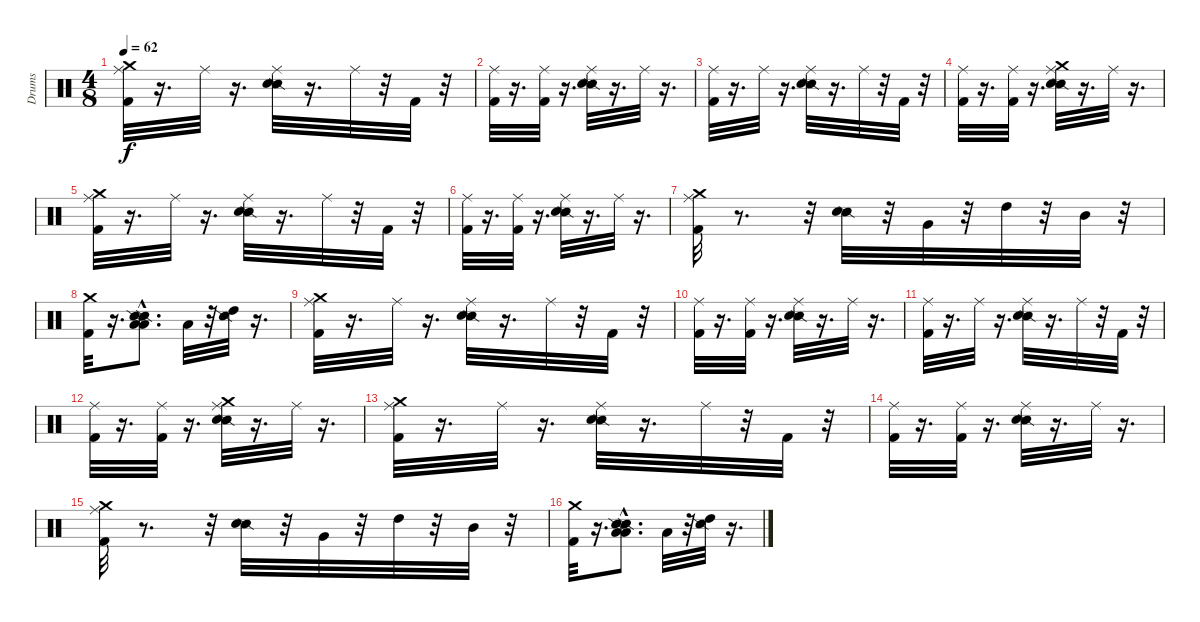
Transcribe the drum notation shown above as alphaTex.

\track ("Drums" "Drums") {instrument percussion}
\staff {score}
\articulation defaults
\ts (4 8)
\tempo 62
\clef neutral
\ks c
("Kick (hit) 2" "Ride (middle)" "Crash medium (hit)").32{dy f} r.16{d} "Ride (middle)".32 r.16{d} ("Snare (side stick) 2" "Snare (hit) 2" "Ride (middle)").32 r.16{d} "Ride (middle)".32 r.32 "Kick (hit) 2".32 r.32 |
("Kick (hit) 2" "Ride (middle)").32 r.16{d} ("Kick (hit) 2" "Ride (middle)").32 r.16{d} ("Snare (side stick) 2" "Snare (hit) 2" "Ride (middle)").32 r.16{d} "Ride (middle)".32 r.16{d} |
("Kick (hit) 2" "Ride (middle)").32 r.16{d} "Ride (middle)".32 r.16{d} ("Snare (side stick) 2" "Snare (hit) 2" "Ride (middle)").32 r.16{d} "Ride (middle)".32 r.32 "Kick (hit) 2".32 r.32 |
("Kick (hit) 2" "Ride (middle)").32 r.16{d} ("Kick (hit) 2" "Ride (middle)").32 r.16{d} ("Snare (side stick) 2" "Snare (hit) 2" "Ride (middle)" "Crash medium (hit)").32 r.16{d} "Ride (middle)".32 r.16{d} |
("Kick (hit) 2" "Ride (middle)" "Crash medium (hit)").32 r.16{d} "Ride (middle)".32 r.16{d} ("Snare (side stick) 2" "Snare (hit) 2" "Ride (middle)").32 r.16{d} "Ride (middle)".32 r.32 "Kick (hit) 2".32 r.32 |
("Kick (hit) 2" "Ride (middle)").32 r.16{d} ("Kick (hit) 2" "Ride (middle)").32 r.16{d} ("Snare (side stick) 2" "Snare (hit) 2" "Ride (middle)").32 r.16{d} "Ride (middle)".32 r.16{d} |
("Kick (hit) 2" "Ride (middle)" "Crash medium (hit)").32 r.8{d} r.32 ("Snare (side stick) 2" "Snare (hit) 2").32 r.32 "Very Low Tom (hit)".32 r.32 "High Tom (hit)".32 r.32 "Mid Tom (hit)".32 r.32 |
("Kick (hit) 2" "Crash medium (hit)").32 r.16{d} ("Low Tom (hit)"{hac} "Snare (side stick) 2"{hac} "Low Tom (hit)" "Snare (side stick) 2").8{d} "Low Tom (hit)".32 r.32 ("High Tom (hit)" "Snare (side stick) 2").32 r.16{d} |
("Kick (hit) 2" "Ride (middle)" "Crash medium (hit)").32 r.16{d} "Ride (middle)".32 r.16{d} ("Snare (side stick) 2" "Snare (hit) 2" "Ride (middle)").32 r.16{d} "Ride (middle)".32 r.32 "Kick (hit) 2".32 r.32 |
("Kick (hit) 2" "Ride (middle)").32 r.16{d} ("Kick (hit) 2" "Ride (middle)").32 r.16{d} ("Snare (side stick) 2" "Snare (hit) 2" "Ride (middle)").32 r.16{d} "Ride (middle)".32 r.16{d} |
("Kick (hit) 2" "Ride (middle)").32 r.16{d} "Ride (middle)".32 r.16{d} ("Snare (side stick) 2" "Snare (hit) 2" "Ride (middle)").32 r.16{d} "Ride (middle)".32 r.32 "Kick (hit) 2".32 r.32 |
("Kick (hit) 2" "Ride (middle)").32 r.16{d} ("Kick (hit) 2" "Ride (middle)").32 r.16{d} ("Snare (side stick) 2" "Snare (hit) 2" "Ride (middle)" "Crash medium (hit)").32 r.16{d} "Ride (middle)".32 r.16{d} |
("Kick (hit) 2" "Ride (middle)" "Crash medium (hit)").32 r.16{d} "Ride (middle)".32 r.16{d} ("Snare (side stick) 2" "Snare (hit) 2" "Ride (middle)").32 r.16{d} "Ride (middle)".32 r.32 "Kick (hit) 2".32 r.32 |
("Kick (hit) 2" "Ride (middle)").32 r.16{d} ("Kick (hit) 2" "Ride (middle)").32 r.16{d} ("Snare (side stick) 2" "Snare (hit) 2" "Ride (middle)").32 r.16{d} "Ride (middle)".32 r.16{d} |
("Kick (hit) 2" "Ride (middle)" "Crash medium (hit)").32 r.8{d} r.32 ("Snare (side stick) 2" "Snare (hit) 2").32 r.32 "Very Low Tom (hit)".32 r.32 "High Tom (hit)".32 r.32 "Mid Tom (hit)".32 r.32 |
("Kick (hit) 2" "Crash medium (hit)").32 r.16{d} ("Low Tom (hit)"{hac} "Snare (side stick) 2"{hac} "Low Tom (hit)" "Snare (side stick) 2").8{d} "Low Tom (hit)".32 r.32 ("High Tom (hit)" "Snare (side stick) 2").32 r.16{d}
